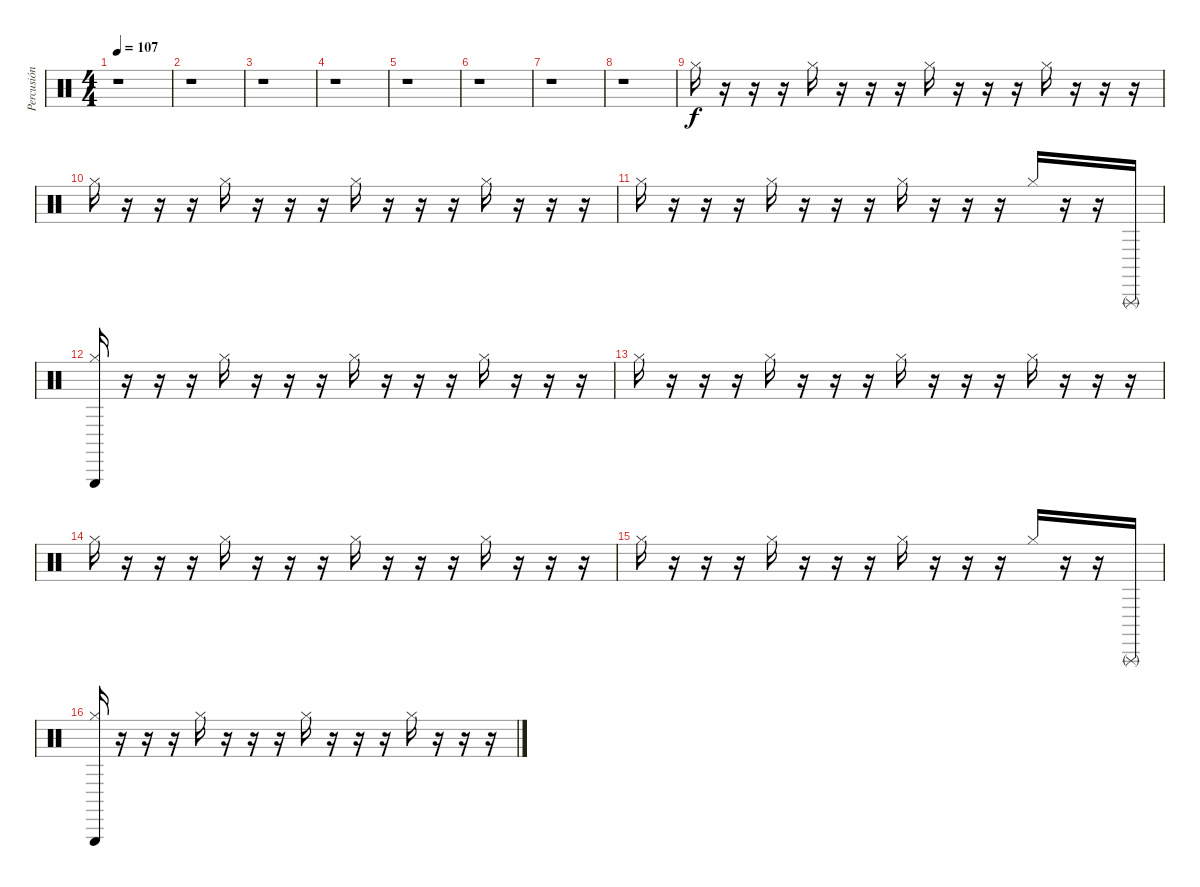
\track ("Percusión" "Percusión") {instrument percussion}
\staff {score}
\articulation defaults
\ts (4 4)
\tempo 107
\clef neutral
\ks c
r.1{dy f} |
r.1 |
r.1 |
r.1 |
r.1 |
r.1 |
r.1 |
r.1 |
"Hi-Hat (closed)".16 r.16 r.16 r.16 "Hi-Hat (closed)".16 r.16 r.16 r.16 "Hi-Hat (closed)".16 r.16 r.16 r.16 "Hi-Hat (closed)".16 r.16 r.16 r.16 |
"Hi-Hat (closed)".16 r.16 r.16 r.16 "Hi-Hat (closed)".16 r.16 r.16 r.16 "Hi-Hat (closed)".16 r.16 r.16 r.16 "Hi-Hat (closed)".16 r.16 r.16 r.16 |
"Hi-Hat (closed)".16 r.16 r.16 r.16 "Hi-Hat (closed)".16 r.16 r.16 r.16 "Hi-Hat (closed)".16 r.16 r.16 r.16 "Hi-Hat (closed)".16 r.16 r.16 "Triangle (rnute)".16 |
("Hi-Hat (closed)" "Triangle (hit)").16 r.16 r.16 r.16 "Hi-Hat (closed)".16 r.16 r.16 r.16 "Hi-Hat (closed)".16 r.16 r.16 r.16 "Hi-Hat (closed)".16 r.16 r.16 r.16 |
"Hi-Hat (closed)".16 r.16 r.16 r.16 "Hi-Hat (closed)".16 r.16 r.16 r.16 "Hi-Hat (closed)".16 r.16 r.16 r.16 "Hi-Hat (closed)".16 r.16 r.16 r.16 |
"Hi-Hat (closed)".16 r.16 r.16 r.16 "Hi-Hat (closed)".16 r.16 r.16 r.16 "Hi-Hat (closed)".16 r.16 r.16 r.16 "Hi-Hat (closed)".16 r.16 r.16 r.16 |
"Hi-Hat (closed)".16 r.16 r.16 r.16 "Hi-Hat (closed)".16 r.16 r.16 r.16 "Hi-Hat (closed)".16 r.16 r.16 r.16 "Hi-Hat (closed)".16 r.16 r.16 "Triangle (rnute)".16 |
("Hi-Hat (closed)" "Triangle (hit)").16 r.16 r.16 r.16 "Hi-Hat (closed)".16 r.16 r.16 r.16 "Hi-Hat (closed)".16 r.16 r.16 r.16 "Hi-Hat (closed)".16 r.16 r.16 r.16
